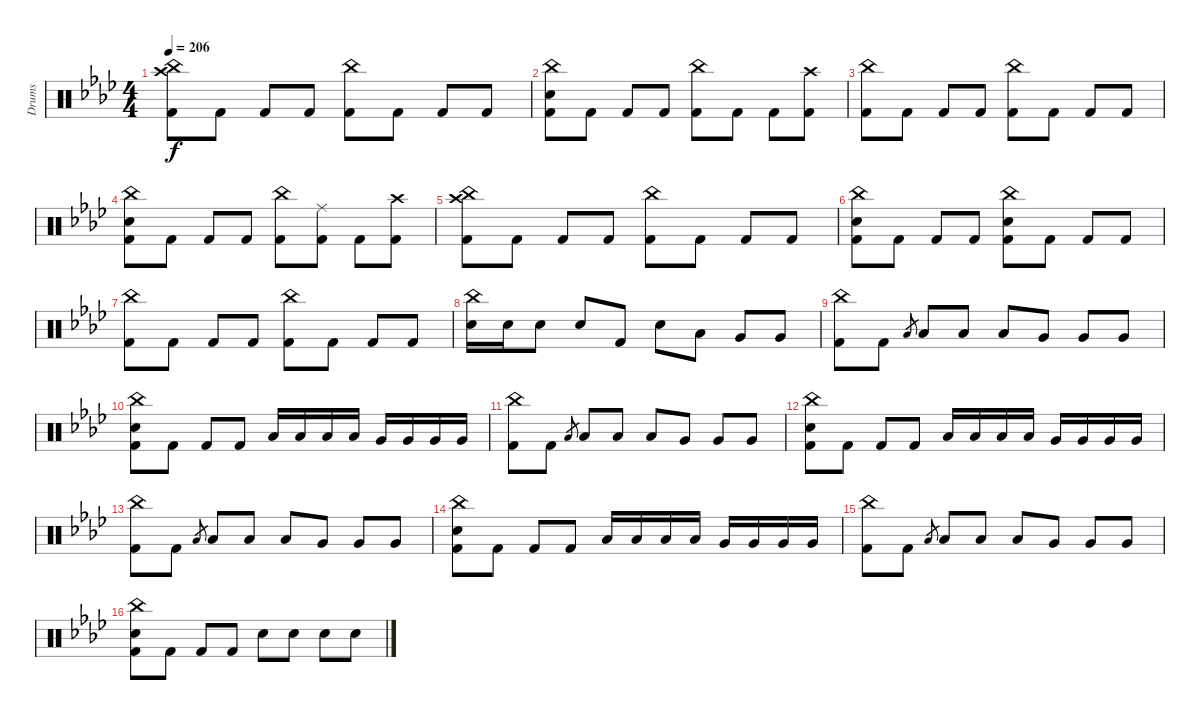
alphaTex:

\track ("Drums" "Drums") {instrument percussion}
\staff {score}
\articulation defaults
\ts (4 4)
\tempo 206
\clef neutral
\ks fminor
("China (hit)" "Crash high (hit)" "Kick (hit) 2").8{dy f} "Kick (hit) 2".8 "Kick (hit) 2".8 "Kick (hit) 2".8 ("China (hit)" "Kick (hit) 2").8 "Kick (hit) 2".8 "Kick (hit) 2".8 "Kick (hit) 2".8 |
("China (hit)" "Electric Snare (hit)" "Kick (hit) 2").8 "Kick (hit) 2".8 "Kick (hit) 2".8 "Kick (hit) 2".8 ("China (hit)" "Kick (hit) 2").8 "Kick (hit) 2".8 "Kick (hit) 2".8 ("Crash high (hit)" "Kick (hit) 2").8 |
("China (hit)" "Kick (hit) 2").8 "Kick (hit) 2".8 "Kick (hit) 2".8 "Kick (hit) 2".8 ("China (hit)" "Kick (hit) 2").8 "Kick (hit) 2".8 "Kick (hit) 2".8 "Kick (hit) 2".8 |
("China (hit)" "Electric Snare (hit)" "Kick (hit) 2").8 "Kick (hit) 2".8 "Kick (hit) 2".8 "Kick (hit) 2".8 ("China (hit)" "Kick (hit) 2").8 ("Ride (middle)" "Kick (hit) 2").8 "Kick (hit) 2".8 ("Crash high (hit)" "Kick (hit) 2").8 |
("China (hit)" "Crash high (hit)" "Kick (hit) 2").8 "Kick (hit) 2".8 "Kick (hit) 2".8 "Kick (hit) 2".8 ("China (hit)" "Kick (hit) 2").8 "Kick (hit) 2".8 "Kick (hit) 2".8 "Kick (hit) 2".8 |
("China (hit)" "Electric Snare (hit)" "Kick (hit) 2").8 "Kick (hit) 2".8 "Kick (hit) 2".8 "Kick (hit) 2".8 ("China (hit)" "Electric Snare (hit)" "Kick (hit) 2").8 "Kick (hit) 2".8 "Kick (hit) 2".8 "Kick (hit) 2".8 |
("China (hit)" "Kick (hit) 2").8 "Kick (hit) 2".8 "Kick (hit) 2".8 "Kick (hit) 2".8 ("China (hit)" "Kick (hit) 2").8 "Kick (hit) 2".8 "Kick (hit) 2".8 "Kick (hit) 2".8 |
("China (hit)" "Electric Snare (hit)").16 "Electric Snare (hit)".16 "Electric Snare (hit)".8 "Electric Snare (hit)".8 "Kick (hit) 2".8 "Electric Snare (hit)".8 "Low Tom (hit)".8 "Very Low Tom (hit)".8 "Very Low Tom (hit)".8 |
("China (hit)" "Kick (hit) 2").8 "Kick (hit) 2".8 "Low Tom (hit)".8{gr} "Low Tom (hit)".8 "Low Tom (hit)".8 "Low Tom (hit)".8 "Very Low Tom (hit)".8 "Very Low Tom (hit)".8 "Very Low Tom (hit)".8 |
("China (hit)" "Electric Snare (hit)" "Kick (hit) 2").8 "Kick (hit) 2".8 "Kick (hit) 2".8 "Kick (hit) 2".8 "Low Tom (hit)".16 "Low Tom (hit)".16 "Low Tom (hit)".16 "Low Tom (hit)".16 "Very Low Tom (hit)".16 "Very Low Tom (hit)".16 "Very Low Tom (hit)".16 "Very Low Tom (hit)".16 |
("China (hit)" "Kick (hit) 2").8 "Kick (hit) 2".8 "Low Tom (hit)".8{gr} "Low Tom (hit)".8 "Low Tom (hit)".8 "Low Tom (hit)".8 "Very Low Tom (hit)".8 "Very Low Tom (hit)".8 "Very Low Tom (hit)".8 |
("China (hit)" "Electric Snare (hit)" "Kick (hit) 2").8 "Kick (hit) 2".8 "Kick (hit) 2".8 "Kick (hit) 2".8 "Low Tom (hit)".16 "Low Tom (hit)".16 "Low Tom (hit)".16 "Low Tom (hit)".16 "Very Low Tom (hit)".16 "Very Low Tom (hit)".16 "Very Low Tom (hit)".16 "Very Low Tom (hit)".16 |
("China (hit)" "Kick (hit) 2").8 "Kick (hit) 2".8 "Low Tom (hit)".8{gr} "Low Tom (hit)".8 "Low Tom (hit)".8 "Low Tom (hit)".8 "Very Low Tom (hit)".8 "Very Low Tom (hit)".8 "Very Low Tom (hit)".8 |
("China (hit)" "Electric Snare (hit)" "Kick (hit) 2").8 "Kick (hit) 2".8 "Kick (hit) 2".8 "Kick (hit) 2".8 "Low Tom (hit)".16 "Low Tom (hit)".16 "Low Tom (hit)".16 "Low Tom (hit)".16 "Very Low Tom (hit)".16 "Very Low Tom (hit)".16 "Very Low Tom (hit)".16 "Very Low Tom (hit)".16 |
("China (hit)" "Kick (hit) 2").8 "Kick (hit) 2".8 "Low Tom (hit)".8{gr} "Low Tom (hit)".8 "Low Tom (hit)".8 "Low Tom (hit)".8 "Very Low Tom (hit)".8 "Very Low Tom (hit)".8 "Very Low Tom (hit)".8 |
("China (hit)" "Electric Snare (hit)" "Kick (hit) 2").8 "Kick (hit) 2".8 "Kick (hit) 2".8 "Kick (hit) 2".8 "Electric Snare (hit)".8 "Electric Snare (hit)".8 "Electric Snare (hit)".8 "Electric Snare (hit)".8
